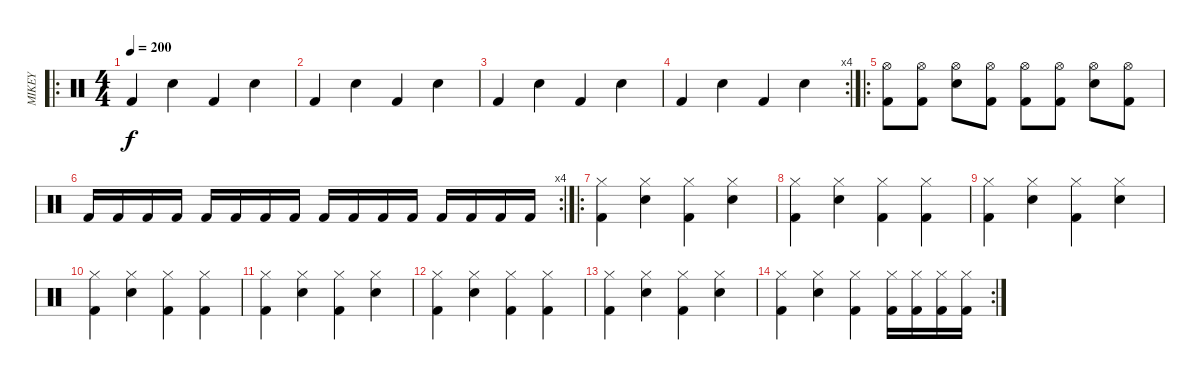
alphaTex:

\track ("MIKEY" "MIKEY") {instrument percussion}
\staff {score}
\articulation defaults
\ro
\ts (4 4)
\tempo 200
\clef neutral
\ks c "Kick (hit) 2".4{dy f} "Snare (hit) 2".4 "Kick (hit) 2".4 "Snare (hit) 2".4
|
"Kick (hit) 2".4 "Snare (hit) 2".4 "Kick (hit) 2".4 "Snare (hit) 2".4 |
"Kick (hit) 2".4 "Snare (hit) 2".4 "Kick (hit) 2".4 "Snare (hit) 2".4 |
\rc 4 "Kick (hit) 2".4 "Snare (hit) 2".4 "Kick (hit) 2".4 "Snare (hit) 2".4
|
\ro
("Hi-Hat (open)" "Kick (hit) 2").8 ("Hi-Hat (open)" "Kick (hit) 2").8 ("Hi-Hat (open)" "Snare (hit) 2").8 ("Hi-Hat (open)" "Kick (hit) 2").8 ("Hi-Hat (open)" "Kick (hit) 2").8 ("Hi-Hat (open)" "Kick (hit) 2").8 ("Hi-Hat (open)" "Snare (hit) 2").8 ("Hi-Hat (open)" "Kick (hit) 2").8 |
\rc 4 "Kick (hit) 2".16 "Kick (hit) 2".16 "Kick (hit) 2".16 "Kick (hit) 2".16 "Kick (hit) 2".16 "Kick (hit) 2".16 "Kick (hit) 2".16 "Kick (hit) 2".16 "Kick (hit) 2".16 "Kick (hit) 2".16 "Kick (hit) 2".16 "Kick (hit) 2".16 "Kick (hit) 2".16 "Kick (hit) 2".16 "Kick (hit) 2".16 "Kick (hit) 2".16
|
\ro
("Hi-Hat (closed)" "Kick (hit) 2").4 ("Hi-Hat (closed)" "Snare (hit) 2").4 ("Hi-Hat (closed)" "Kick (hit) 2").4 ("Hi-Hat (closed)" "Snare (hit) 2").4 |
("Hi-Hat (closed)" "Kick (hit) 2").4 ("Hi-Hat (closed)" "Snare (hit) 2").4 ("Hi-Hat (closed)" "Kick (hit) 2").4 ("Hi-Hat (closed)" "Kick (hit) 2").4 |
("Hi-Hat (closed)" "Kick (hit) 2").4 ("Hi-Hat (closed)" "Snare (hit) 2").4 ("Hi-Hat (closed)" "Kick (hit) 2").4 ("Hi-Hat (closed)" "Snare (hit) 2").4 |
("Hi-Hat (closed)" "Kick (hit) 2").4 ("Hi-Hat (closed)" "Snare (hit) 2").4 ("Hi-Hat (closed)" "Kick (hit) 2").4 ("Hi-Hat (closed)" "Kick (hit) 2").4 |
("Hi-Hat (closed)" "Kick (hit) 2").4 ("Hi-Hat (closed)" "Snare (hit) 2").4 ("Hi-Hat (closed)" "Kick (hit) 2").4 ("Hi-Hat (closed)" "Snare (hit) 2").4 |
("Hi-Hat (closed)" "Kick (hit) 2").4 ("Hi-Hat (closed)" "Snare (hit) 2").4 ("Hi-Hat (closed)" "Kick (hit) 2").4 ("Hi-Hat (closed)" "Kick (hit) 2").4 |
("Hi-Hat (closed)" "Kick (hit) 2").4 ("Hi-Hat (closed)" "Snare (hit) 2").4 ("Hi-Hat (closed)" "Kick (hit) 2").4 ("Hi-Hat (closed)" "Snare (hit) 2").4 |
\rc 2
("Hi-Hat (closed)" "Kick (hit) 2").4 ("Hi-Hat (closed)" "Snare (hit) 2").4 ("Hi-Hat (closed)" "Kick (hit) 2").4 ("Hi-Hat (closed)" "Kick (hit) 2").16 ("Hi-Hat (closed)" "Kick (hit) 2").16 ("Hi-Hat (closed)" "Kick (hit) 2").16 ("Hi-Hat (closed)" "Kick (hit) 2").16
